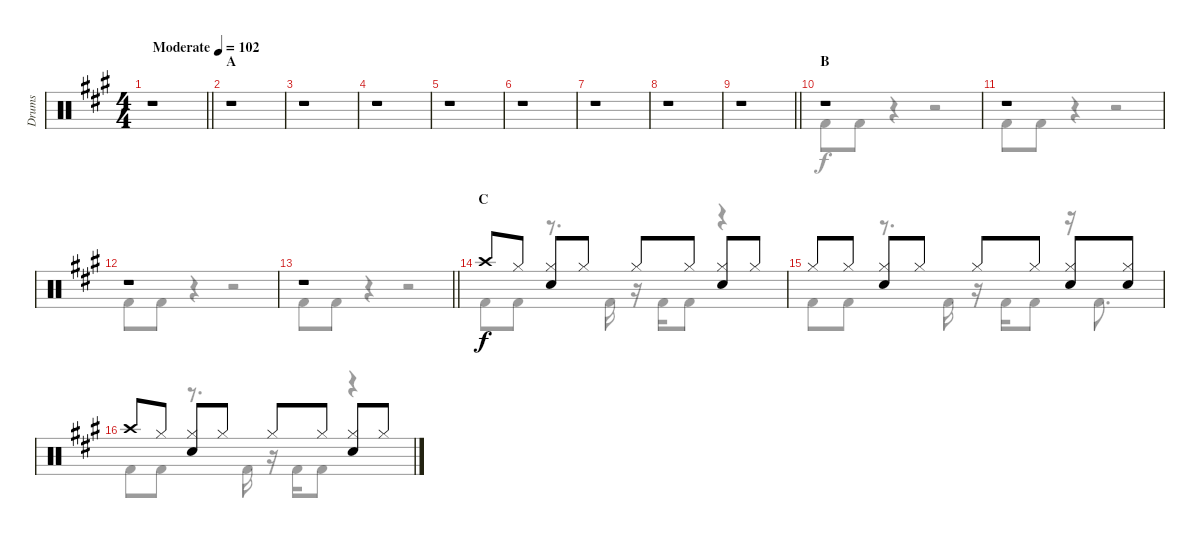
\track ("Drums" "Drums") {instrument percussion}
\staff {score}
\articulation defaults
\voice
\ts (4 4)
\tempo (102 "Moderate")
\clef neutral
\barLineRight lightlight
\ks a
r.1{dy f} |
\section ("" "A")
r.1 |
r.1 |
r.1 |
r.1 |
r.1 |
r.1 |
r.1 |
\barLineRight lightlight
r.1 |
\section ("" "B")
r.1 |
r.1 |
r.1 |
\barLineRight lightlight
r.1 |
\section ("" "C")
"Crash high (hit)".8 "Hi-Hat (closed)".8 ("Hi-Hat (closed)" "Snare (hit) 2").8 "Hi-Hat (closed)".8 "Hi-Hat (closed)".8 "Hi-Hat (closed)".8 ("Hi-Hat (closed)" "Snare (hit) 2").8 "Hi-Hat (closed)".8 |
"Hi-Hat (closed)".8 "Hi-Hat (closed)".8 ("Hi-Hat (closed)" "Snare (hit) 2").8 "Hi-Hat (closed)".8 "Hi-Hat (closed)".8 "Hi-Hat (closed)".8 ("Hi-Hat (closed)" "Snare (hit) 2").8 ("Hi-Hat (closed)" "Snare (hit) 2").8 |
"Crash high (hit)".8 "Hi-Hat (closed)".8 ("Hi-Hat (closed)" "Snare (hit) 2").8 "Hi-Hat (closed)".8 "Hi-Hat (closed)".8 "Hi-Hat (closed)".8 ("Hi-Hat (closed)" "Snare (hit) 2").8 "Hi-Hat (closed)".8
\voice
\clef neutral
\ottava regular
\simile none
\barLineRight lightlight
\ks a
r.1{dy f} |
r.1 |
r.1 |
r.1 |
r.1 |
r.1 |
r.1 |
r.1 |
\barLineRight lightlight
r.1 |
"Kick (hit) 2".8 "Kick (hit) 2".8 r.4 r.2 |
"Kick (hit) 2".8 "Kick (hit) 2".8 r.4 r.2 |
"Kick (hit) 2".8 "Kick (hit) 2".8 r.4 r.2 |
\barLineRight lightlight "Kick (hit) 2".8 "Kick (hit) 2".8
r.4 r.2 |
"Kick (hit) 2".8 "Kick (hit) 2".8 r.8{d} "Kick (hit) 2".16 r.16 "Kick (hit) 2".16 "Kick (hit) 2".8 r.4 |
"Kick (hit) 2".8 "Kick (hit) 2".8 r.8{d} "Kick (hit) 2".16 r.16 "Kick (hit) 2".16 "Kick (hit) 2".8 r.16 "Kick (hit) 2".8{d} |
"Kick (hit) 2".8 "Kick (hit) 2".8 r.8{d} "Kick (hit) 2".16 r.16 "Kick (hit) 2".16 "Kick (hit) 2".8 r.4
